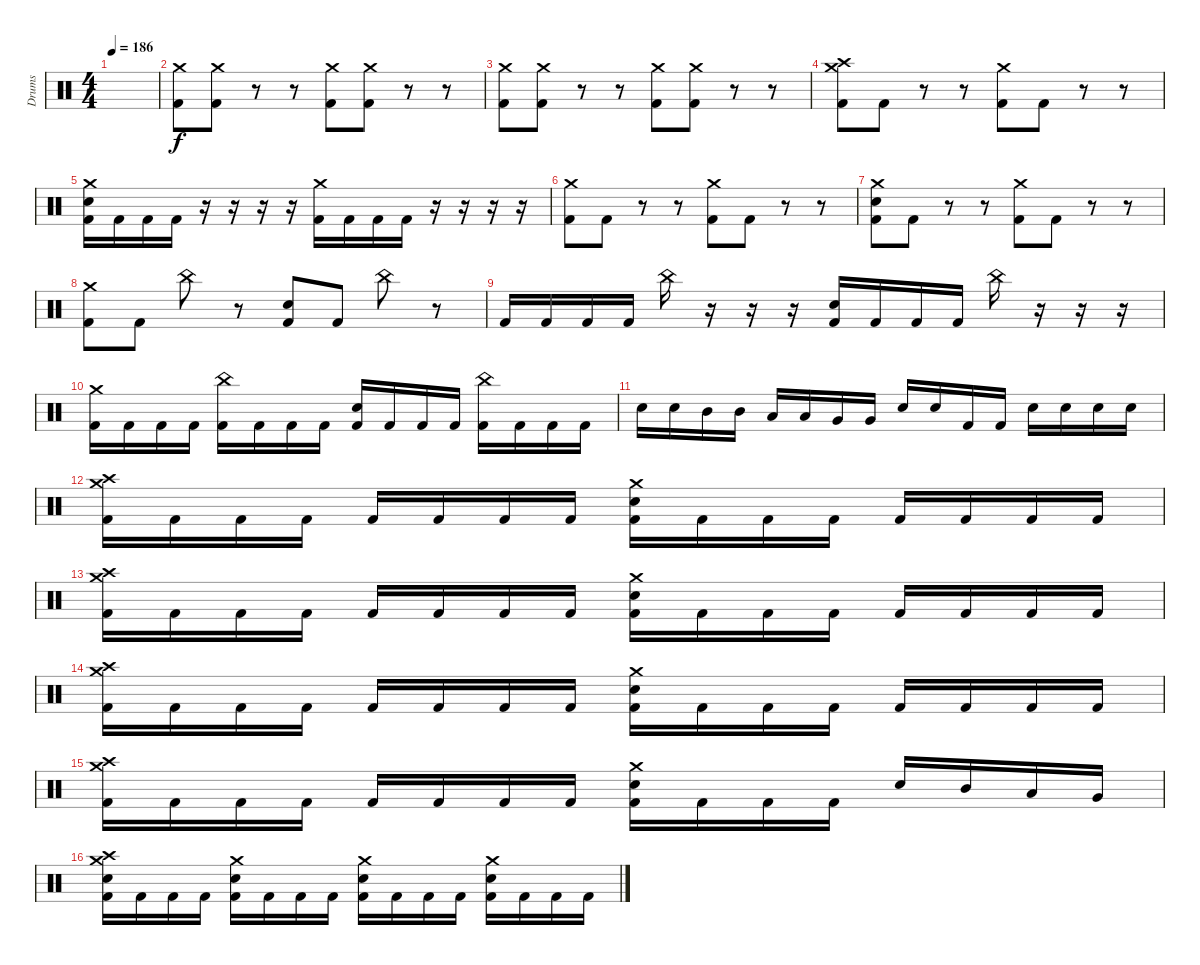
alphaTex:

\track ("Drums" "Drums") {instrument percussion}
\staff {score}
\articulation defaults
\ts (4 4)
\tempo 186
\clef neutral
\ks c
|
("Crash medium (hit)" "Kick (hit) 2").8 ("Crash medium (hit)" "Kick (hit) 2").8 r.8 r.8 ("Crash medium (hit)" "Kick (hit) 2").8 ("Crash medium (hit)" "Kick (hit) 2").8 r.8 r.8 |
("Crash medium (hit)" "Kick (hit) 2").8 ("Crash medium (hit)" "Kick (hit) 2").8 r.8 r.8 ("Crash medium (hit)" "Kick (hit) 2").8 ("Crash medium (hit)" "Kick (hit) 2").8 r.8 r.8 |
("Crash high (hit)" "Crash medium (hit)" "Kick (hit) 2").8 "Kick (hit) 2".8 r.8 r.8 ("Crash medium (hit)" "Kick (hit) 2").8 "Kick (hit) 2".8 r.8 r.8 |
("Crash medium (hit)" "Snare (hit) 2" "Kick (hit) 2").16 "Kick (hit) 2".16 "Kick (hit) 2".16 "Kick (hit) 2".16 r.16 r.16 r.16 r.16 ("Crash medium (hit)" "Kick (hit) 2").16 "Kick (hit) 2".16 "Kick (hit) 2".16 "Kick (hit) 2".16 r.16 r.16 r.16 r.16 |
("Crash medium (hit)" "Kick (hit) 2").8 "Kick (hit) 2".8 r.8 r.8 ("Crash medium (hit)" "Kick (hit) 2").8 "Kick (hit) 2".8 r.8 r.8 |
("Crash medium (hit)" "Snare (hit) 2" "Kick (hit) 2").8 "Kick (hit) 2".8 r.8 r.8 ("Crash medium (hit)" "Kick (hit) 2").8 "Kick (hit) 2".8 r.8 r.8 |
("Crash medium (hit)" "Kick (hit) 2").8 "Kick (hit) 2".8 "China (hit)".8 r.8 ("Snare (hit) 2" "Kick (hit) 2").8 "Kick (hit) 2".8 "China (hit)".8 r.8 |
"Kick (hit) 2".16 "Kick (hit) 2".16 "Kick (hit) 2".16 "Kick (hit) 2".16 "China (hit)".16 r.16 r.16 r.16 ("Snare (hit) 2" "Kick (hit) 2").16 "Kick (hit) 2".16 "Kick (hit) 2".16 "Kick (hit) 2".16 "China (hit)".16 r.16 r.16 r.16 |
("Crash medium (hit)" "Kick (hit) 2").16 "Kick (hit) 2".16 "Kick (hit) 2".16 "Kick (hit) 2".16 ("China (hit)" "Kick (hit) 2").16 "Kick (hit) 2".16 "Kick (hit) 2".16 "Kick (hit) 2".16 ("Snare (hit) 2" "Kick (hit) 2").16 "Kick (hit) 2".16 "Kick (hit) 2".16 "Kick (hit) 2".16 ("China (hit)" "Kick (hit) 2").16 "Kick (hit) 2".16 "Kick (hit) 2".16 "Kick (hit) 2".16 |
"Snare (hit) 2".16 "Snare (hit) 2".16 "Mid Tom (hit)".16 "Mid Tom (hit)".16 "Low Tom (hit)".16 "Low Tom (hit)".16 "Very Low Tom (hit)".16 "Very Low Tom (hit)".16 "Snare (hit) 2".16 "Snare (hit) 2".16 "Kick (hit) 2".16 "Kick (hit) 2".16 "Snare (hit) 2".16 "Snare (hit) 2".16 "Snare (hit) 2".16 "Snare (hit) 2".16 |
("Crash high (hit)" "Crash medium (hit)" "Kick (hit) 2").16 "Kick (hit) 2".16 "Kick (hit) 2".16 "Kick (hit) 2".16 "Kick (hit) 2".16 "Kick (hit) 2".16 "Kick (hit) 2".16 "Kick (hit) 2".16 ("Crash medium (hit)" "Snare (hit) 2" "Kick (hit) 2").16 "Kick (hit) 2".16 "Kick (hit) 2".16 "Kick (hit) 2".16 "Kick (hit) 2".16 "Kick (hit) 2".16 "Kick (hit) 2".16 "Kick (hit) 2".16 |
("Crash high (hit)" "Crash medium (hit)" "Kick (hit) 2").16 "Kick (hit) 2".16 "Kick (hit) 2".16 "Kick (hit) 2".16 "Kick (hit) 2".16 "Kick (hit) 2".16 "Kick (hit) 2".16 "Kick (hit) 2".16 ("Crash medium (hit)" "Snare (hit) 2" "Kick (hit) 2").16 "Kick (hit) 2".16 "Kick (hit) 2".16 "Kick (hit) 2".16 "Kick (hit) 2".16 "Kick (hit) 2".16 "Kick (hit) 2".16 "Kick (hit) 2".16 |
("Crash high (hit)" "Crash medium (hit)" "Kick (hit) 2").16 "Kick (hit) 2".16 "Kick (hit) 2".16 "Kick (hit) 2".16 "Kick (hit) 2".16 "Kick (hit) 2".16 "Kick (hit) 2".16 "Kick (hit) 2".16 ("Crash medium (hit)" "Snare (hit) 2" "Kick (hit) 2").16 "Kick (hit) 2".16 "Kick (hit) 2".16 "Kick (hit) 2".16 "Kick (hit) 2".16 "Kick (hit) 2".16 "Kick (hit) 2".16 "Kick (hit) 2".16 |
("Crash high (hit)" "Crash medium (hit)" "Kick (hit) 2").16 "Kick (hit) 2".16 "Kick (hit) 2".16 "Kick (hit) 2".16 "Kick (hit) 2".16 "Kick (hit) 2".16 "Kick (hit) 2".16 "Kick (hit) 2".16 ("Crash medium (hit)" "Snare (hit) 2" "Kick (hit) 2").16 "Kick (hit) 2".16 "Kick (hit) 2".16 "Kick (hit) 2".16 "Snare (hit) 2".16 "Mid Tom (hit)".16 "Low Tom (hit)".16 "Very Low Tom (hit)".16 |
("Crash high (hit)" "Crash medium (hit)" "Snare (hit) 2" "Kick (hit) 2").16 "Kick (hit) 2".16 "Kick (hit) 2".16 "Kick (hit) 2".16 ("Crash medium (hit)" "Snare (hit) 2" "Kick (hit) 2").16 "Kick (hit) 2".16 "Kick (hit) 2".16 "Kick (hit) 2".16 ("Crash medium (hit)" "Snare (hit) 2" "Kick (hit) 2").16 "Kick (hit) 2".16 "Kick (hit) 2".16 "Kick (hit) 2".16 ("Crash medium (hit)" "Snare (hit) 2" "Kick (hit) 2").16 "Kick (hit) 2".16 "Kick (hit) 2".16 "Kick (hit) 2".16
